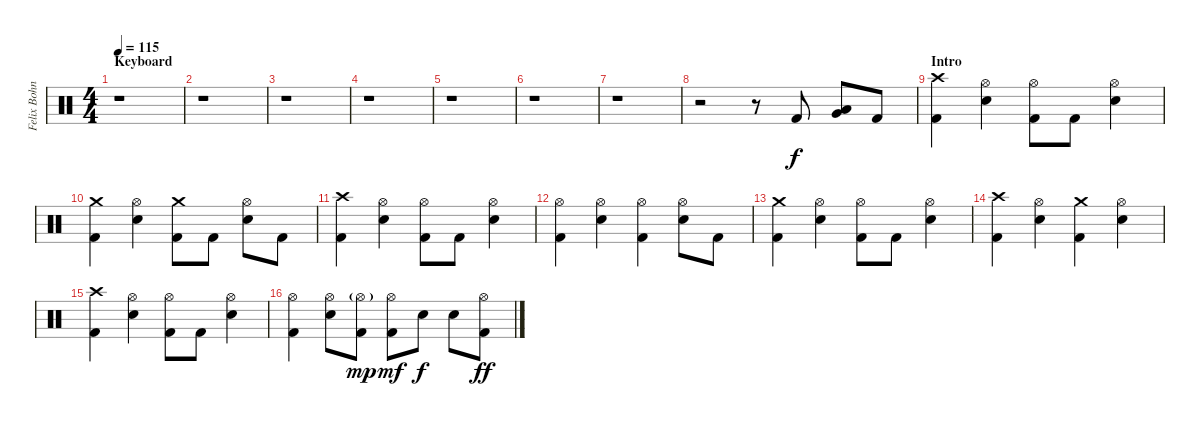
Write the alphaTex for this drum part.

\track ("Felix Bohnke" "Felix Bohn") {instrument percussion}
\staff {score}
\articulation defaults
\ts (4 4)
\section ("" "Keyboard")
\tempo 115
\clef neutral
\ks c
r.1{dy f} |
r.1 |
r.1 |
r.1 |
r.1 |
r.1 |
r.1 |
r.2 r.8 "Kick (hit) 2".8 ("Low Tom (hit)" "Very Low Tom (hit)").8 "Kick (hit) 2".8 |
\section ("" "Intro")
("Crash high (hit)" "Kick (hit) 2").4 ("Hi-Hat (open)" "Electric Snare (hit)").4 ("Hi-Hat (open)" "Kick (hit) 2").8 "Kick (hit) 2".8 ("Hi-Hat (open)" "Electric Snare (hit)").4 |
("Crash medium (hit)" "Kick (hit) 2").4 ("Hi-Hat (open)" "Electric Snare (hit)").4 ("Crash medium (hit)" "Kick (hit) 2").8 "Kick (hit) 2".8 ("Hi-Hat (open)" "Electric Snare (hit)").8 "Kick (hit) 2".8 |
("Crash high (hit)" "Kick (hit) 2").4 ("Hi-Hat (open)" "Electric Snare (hit)").4 ("Hi-Hat (open)" "Kick (hit) 2").8 "Kick (hit) 2".8 ("Hi-Hat (open)" "Electric Snare (hit)").4 |
("Hi-Hat (open)" "Kick (hit) 2").4 ("Hi-Hat (open)" "Electric Snare (hit)").4 ("Hi-Hat (open)" "Kick (hit) 2").4 ("Hi-Hat (open)" "Electric Snare (hit)").8 "Kick (hit) 2".8 |
("Crash medium (hit)" "Kick (hit) 2").4 ("Hi-Hat (open)" "Electric Snare (hit)").4 ("Hi-Hat (open)" "Kick (hit) 2").8 "Kick (hit) 2".8 ("Hi-Hat (open)" "Electric Snare (hit)").4 |
("Crash high (hit)" "Kick (hit) 2").4 ("Hi-Hat (open)" "Electric Snare (hit)").4 ("Crash medium (hit)" "Kick (hit) 2").4 ("Hi-Hat (open)" "Electric Snare (hit)").4 |
("Crash high (hit)" "Kick (hit) 2").4 ("Hi-Hat (open)" "Electric Snare (hit)").4 ("Hi-Hat (open)" "Kick (hit) 2").8 "Kick (hit) 2".8 ("Hi-Hat (open)" "Electric Snare (hit)").4 |
("Hi-Hat (open)" "Kick (hit) 2").4 ("Hi-Hat (open)" "Electric Snare (hit)").8 ("Hi-Hat (open)"{g} "Kick (hit) 2").8{dy mp} ("Hi-Hat (open)" "Kick (hit) 2").8{dy mf} "Electric Snare (hit)".8{dy f} "Electric Snare (hit)".8 ("Hi-Hat (open)" "Kick (hit) 2").8{dy ff}
